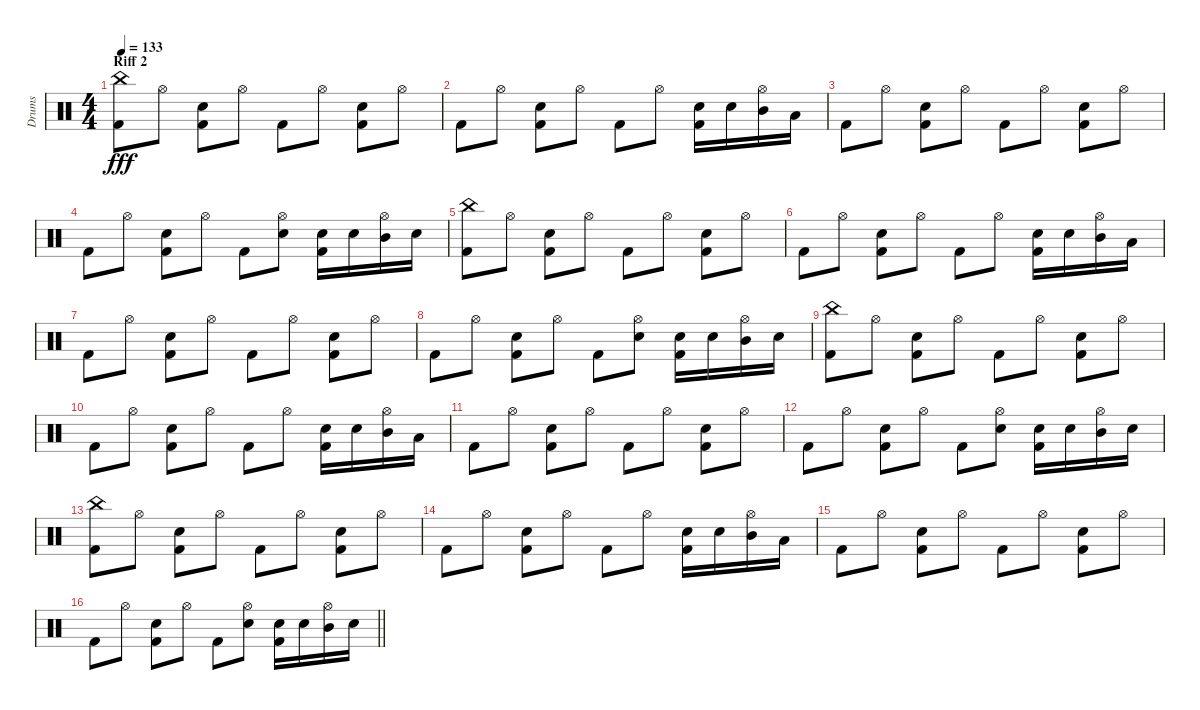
\track ("Drums" "Drums") {instrument percussion}
\staff {score}
\articulation defaults
\ts (4 4)
\section ("" "Riff 2")
\tempo 133
\clef neutral
\ks c
("Kick (hit) 2" "China (hit)").8{dy fff} "Hi-Hat (open)".8 ("Kick (hit) 2" "Snare (hit) 2").8 "Hi-Hat (open)".8 "Kick (hit) 2".8 "Hi-Hat (open)".8 ("Kick (hit) 2" "Snare (hit) 2").8 "Hi-Hat (open)".8 |
"Kick (hit) 2".8 "Hi-Hat (open)".8 ("Kick (hit) 2" "Snare (hit) 2").8 "Hi-Hat (open)".8 "Kick (hit) 2".8 "Hi-Hat (open)".8 ("Kick (hit) 2" "Snare (hit) 2").16 "Snare (hit) 2".16 ("Hi-Hat (open)" "Mid Tom (hit)").16 "Low Tom (hit)".16 |
"Kick (hit) 2".8 "Hi-Hat (open)".8 ("Kick (hit) 2" "Snare (hit) 2").8 "Hi-Hat (open)".8 "Kick (hit) 2".8 "Hi-Hat (open)".8 ("Kick (hit) 2" "Snare (hit) 2").8 "Hi-Hat (open)".8 |
"Kick (hit) 2".8 "Hi-Hat (open)".8 ("Kick (hit) 2" "Snare (hit) 2").8 "Hi-Hat (open)".8 "Kick (hit) 2".8 ("Snare (hit) 2" "Hi-Hat (open)").8 ("Kick (hit) 2" "Snare (hit) 2").16 "Snare (hit) 2".16 ("Hi-Hat (open)" "Mid Tom (hit)").16 "Snare (hit) 2".16 |
("Kick (hit) 2" "China (hit)").8 "Hi-Hat (open)".8 ("Kick (hit) 2" "Snare (hit) 2").8 "Hi-Hat (open)".8 "Kick (hit) 2".8 "Hi-Hat (open)".8 ("Kick (hit) 2" "Snare (hit) 2").8 "Hi-Hat (open)".8 |
"Kick (hit) 2".8 "Hi-Hat (open)".8 ("Kick (hit) 2" "Snare (hit) 2").8 "Hi-Hat (open)".8 "Kick (hit) 2".8 "Hi-Hat (open)".8 ("Kick (hit) 2" "Snare (hit) 2").16 "Snare (hit) 2".16 ("Hi-Hat (open)" "Mid Tom (hit)").16 "Low Tom (hit)".16 |
"Kick (hit) 2".8 "Hi-Hat (open)".8 ("Kick (hit) 2" "Snare (hit) 2").8 "Hi-Hat (open)".8 "Kick (hit) 2".8 "Hi-Hat (open)".8 ("Kick (hit) 2" "Snare (hit) 2").8 "Hi-Hat (open)".8 |
"Kick (hit) 2".8 "Hi-Hat (open)".8 ("Kick (hit) 2" "Snare (hit) 2").8 "Hi-Hat (open)".8 "Kick (hit) 2".8 ("Snare (hit) 2" "Hi-Hat (open)").8 ("Kick (hit) 2" "Snare (hit) 2").16 "Snare (hit) 2".16 ("Hi-Hat (open)" "Mid Tom (hit)").16 "Snare (hit) 2".16 |
("Kick (hit) 2" "China (hit)").8 "Hi-Hat (open)".8 ("Kick (hit) 2" "Snare (hit) 2").8 "Hi-Hat (open)".8 "Kick (hit) 2".8 "Hi-Hat (open)".8 ("Kick (hit) 2" "Snare (hit) 2").8 "Hi-Hat (open)".8 |
"Kick (hit) 2".8 "Hi-Hat (open)".8 ("Kick (hit) 2" "Snare (hit) 2").8 "Hi-Hat (open)".8 "Kick (hit) 2".8 "Hi-Hat (open)".8 ("Kick (hit) 2" "Snare (hit) 2").16 "Snare (hit) 2".16 ("Hi-Hat (open)" "Mid Tom (hit)").16 "Low Tom (hit)".16 |
"Kick (hit) 2".8 "Hi-Hat (open)".8 ("Kick (hit) 2" "Snare (hit) 2").8 "Hi-Hat (open)".8 "Kick (hit) 2".8 "Hi-Hat (open)".8 ("Kick (hit) 2" "Snare (hit) 2").8 "Hi-Hat (open)".8 |
"Kick (hit) 2".8 "Hi-Hat (open)".8 ("Kick (hit) 2" "Snare (hit) 2").8 "Hi-Hat (open)".8 "Kick (hit) 2".8 ("Snare (hit) 2" "Hi-Hat (open)").8 ("Kick (hit) 2" "Snare (hit) 2").16 "Snare (hit) 2".16 ("Hi-Hat (open)" "Mid Tom (hit)").16 "Snare (hit) 2".16 |
("Kick (hit) 2" "China (hit)").8 "Hi-Hat (open)".8 ("Kick (hit) 2" "Snare (hit) 2").8 "Hi-Hat (open)".8 "Kick (hit) 2".8 "Hi-Hat (open)".8 ("Kick (hit) 2" "Snare (hit) 2").8 "Hi-Hat (open)".8 |
"Kick (hit) 2".8 "Hi-Hat (open)".8 ("Kick (hit) 2" "Snare (hit) 2").8 "Hi-Hat (open)".8 "Kick (hit) 2".8 "Hi-Hat (open)".8 ("Kick (hit) 2" "Snare (hit) 2").16 "Snare (hit) 2".16 ("Hi-Hat (open)" "Mid Tom (hit)").16 "Low Tom (hit)".16 |
"Kick (hit) 2".8 "Hi-Hat (open)".8 ("Kick (hit) 2" "Snare (hit) 2").8 "Hi-Hat (open)".8 "Kick (hit) 2".8 "Hi-Hat (open)".8 ("Kick (hit) 2" "Snare (hit) 2").8 "Hi-Hat (open)".8 |
\barLineRight lightlight "Kick (hit) 2".8 "Hi-Hat (open)".8
("Kick (hit) 2" "Snare (hit) 2").8 "Hi-Hat (open)".8 "Kick (hit) 2".8 ("Snare (hit) 2" "Hi-Hat (open)").8 ("Kick (hit) 2" "Snare (hit) 2").16 "Snare (hit) 2".16 ("Hi-Hat (open)" "Mid Tom (hit)").16 "Snare (hit) 2".16
